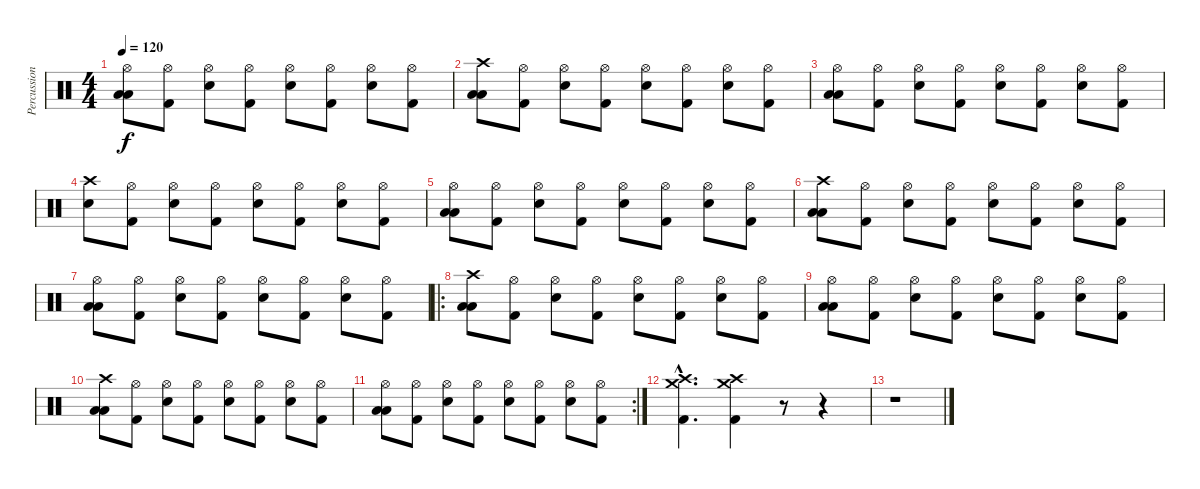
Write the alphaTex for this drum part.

\track ("Percussion" "Percussion") {instrument percussion}
\staff {score}
\articulation defaults
\ts (4 4)
\tempo 120
\clef neutral
\ks c
("Hi-Hat (open)" "Low Tom (hit)" "Low Floor Tom (hit)").8{dy f} ("Hi-Hat (open)" "Kick (hit) 2").8 ("Hi-Hat (open)" "Electric Snare (hit)").8 ("Hi-Hat (open)" "Kick (hit) 2").8 ("Hi-Hat (open)" "Electric Snare (hit)").8 ("Hi-Hat (open)" "Kick (hit) 2").8 ("Hi-Hat (open)" "Electric Snare (hit)").8 ("Hi-Hat (open)" "Kick (hit) 2").8 |
("Crash high (hit)" "Low Tom (hit)" "Low Floor Tom (hit)").8 ("Hi-Hat (open)" "Kick (hit) 2").8 ("Hi-Hat (open)" "Electric Snare (hit)").8 ("Hi-Hat (open)" "Kick (hit) 2").8 ("Hi-Hat (open)" "Electric Snare (hit)").8 ("Hi-Hat (open)" "Kick (hit) 2").8 ("Hi-Hat (open)" "Electric Snare (hit)").8 ("Hi-Hat (open)" "Kick (hit) 2").8 |
("Hi-Hat (open)" "Low Tom (hit)" "Low Floor Tom (hit)").8 ("Hi-Hat (open)" "Kick (hit) 2").8 ("Hi-Hat (open)" "Electric Snare (hit)").8 ("Hi-Hat (open)" "Kick (hit) 2").8 ("Hi-Hat (open)" "Electric Snare (hit)").8 ("Hi-Hat (open)" "Kick (hit) 2").8 ("Hi-Hat (open)" "Electric Snare (hit)").8 ("Hi-Hat (open)" "Kick (hit) 2").8 |
("Crash high (hit)" "Electric Snare (hit)").8 ("Hi-Hat (open)" "Kick (hit) 2").8 ("Hi-Hat (open)" "Electric Snare (hit)").8 ("Hi-Hat (open)" "Kick (hit) 2").8 ("Hi-Hat (open)" "Electric Snare (hit)").8 ("Hi-Hat (open)" "Kick (hit) 2").8 ("Hi-Hat (open)" "Electric Snare (hit)").8 ("Hi-Hat (open)" "Kick (hit) 2").8 |
("Hi-Hat (open)" "Low Tom (hit)" "Low Floor Tom (hit)").8 ("Hi-Hat (open)" "Kick (hit) 2").8 ("Hi-Hat (open)" "Electric Snare (hit)").8 ("Hi-Hat (open)" "Kick (hit) 2").8 ("Hi-Hat (open)" "Electric Snare (hit)").8 ("Hi-Hat (open)" "Kick (hit) 2").8 ("Hi-Hat (open)" "Electric Snare (hit)").8 ("Hi-Hat (open)" "Kick (hit) 2").8 |
("Crash high (hit)" "Low Tom (hit)" "Low Floor Tom (hit)").8 ("Hi-Hat (open)" "Kick (hit) 2").8 ("Hi-Hat (open)" "Electric Snare (hit)").8 ("Hi-Hat (open)" "Kick (hit) 2").8 ("Hi-Hat (open)" "Electric Snare (hit)").8 ("Hi-Hat (open)" "Kick (hit) 2").8 ("Hi-Hat (open)" "Electric Snare (hit)").8 ("Hi-Hat (open)" "Kick (hit) 2").8 |
("Hi-Hat (open)" "Low Tom (hit)" "Low Floor Tom (hit)").8 ("Hi-Hat (open)" "Kick (hit) 2").8 ("Hi-Hat (open)" "Electric Snare (hit)").8 ("Hi-Hat (open)" "Kick (hit) 2").8 ("Hi-Hat (open)" "Electric Snare (hit)").8 ("Hi-Hat (open)" "Kick (hit) 2").8 ("Hi-Hat (open)" "Electric Snare (hit)").8 ("Hi-Hat (open)" "Kick (hit) 2").8 |
\ro
("Crash high (hit)" "Low Tom (hit)" "Low Floor Tom (hit)").8 ("Hi-Hat (open)" "Kick (hit) 2").8 ("Hi-Hat (open)" "Electric Snare (hit)").8 ("Hi-Hat (open)" "Kick (hit) 2").8 ("Hi-Hat (open)" "Electric Snare (hit)").8 ("Hi-Hat (open)" "Kick (hit) 2").8 ("Hi-Hat (open)" "Electric Snare (hit)").8 ("Hi-Hat (open)" "Kick (hit) 2").8 |
("Hi-Hat (open)" "Low Tom (hit)" "Low Floor Tom (hit)").8 ("Hi-Hat (open)" "Kick (hit) 2").8 ("Hi-Hat (open)" "Electric Snare (hit)").8 ("Hi-Hat (open)" "Kick (hit) 2").8 ("Hi-Hat (open)" "Electric Snare (hit)").8 ("Hi-Hat (open)" "Kick (hit) 2").8 ("Hi-Hat (open)" "Electric Snare (hit)").8 ("Hi-Hat (open)" "Kick (hit) 2").8 |
("Crash high (hit)" "Low Tom (hit)" "Low Floor Tom (hit)").8 ("Hi-Hat (open)" "Kick (hit) 2").8 ("Hi-Hat (open)" "Electric Snare (hit)").8 ("Hi-Hat (open)" "Kick (hit) 2").8 ("Hi-Hat (open)" "Electric Snare (hit)").8 ("Hi-Hat (open)" "Kick (hit) 2").8 ("Hi-Hat (open)" "Electric Snare (hit)").8 ("Hi-Hat (open)" "Kick (hit) 2").8 |
\rc 2
("Hi-Hat (open)" "Low Tom (hit)" "Low Floor Tom (hit)").8 ("Hi-Hat (open)" "Kick (hit) 2").8 ("Hi-Hat (open)" "Electric Snare (hit)").8 ("Hi-Hat (open)" "Kick (hit) 2").8 ("Hi-Hat (open)" "Electric Snare (hit)").8 ("Hi-Hat (open)" "Kick (hit) 2").8 ("Hi-Hat (open)" "Electric Snare (hit)").8 ("Hi-Hat (open)" "Kick (hit) 2").8 |
("Crash high (hit)"{hac} "Crash medium (hit)"{hac} "Kick (hit) 2"{hac}).4{d} ("Crash high (hit)" "Crash medium (hit)" "Kick (hit) 2").4 r.8 r.4 |
r.1
